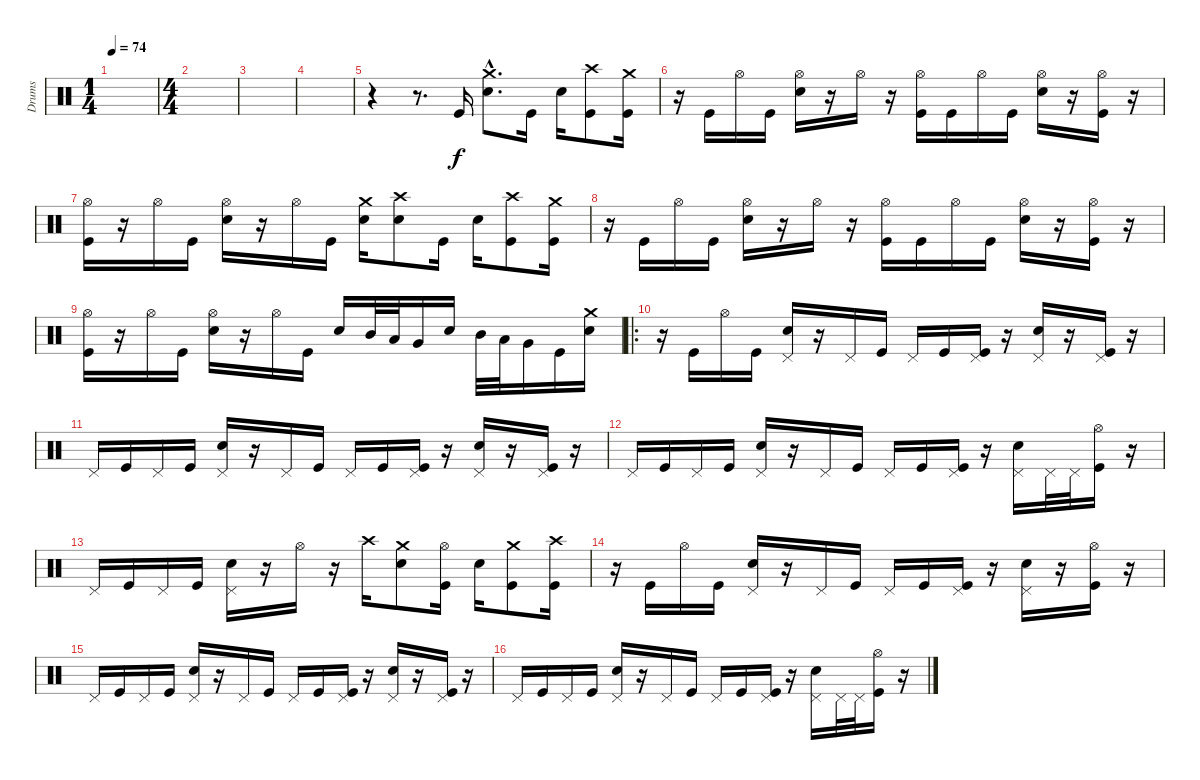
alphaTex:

\track ("Drums" "Drums") {instrument percussion}
\staff {score}
\articulation defaults
\ts (1 4)
\tempo 74
\clef neutral
\ks c
|
\ts (4 4)
|
|
|
r.4 r.8{d} "Kick (hit)".16 ("Crash medium (hit)"{hac} "Electric Snare (hit)"{hac}).8{d} "Kick (hit)".16 "Electric Snare (hit)".16 ("Crash high (hit)" "Kick (hit)").8 ("Crash medium (hit)" "Kick (hit)").16 |
r.16 "Kick (hit)".16 "Hi-Hat (open)".16 "Kick (hit)".16 ("Hi-Hat (open)" "Electric Snare (hit)").16 r.16 "Hi-Hat (open)".16 r.16 ("Hi-Hat (open)" "Kick (hit)").16 "Kick (hit)".16 "Hi-Hat (open)".16 "Kick (hit)".16 ("Hi-Hat (open)" "Electric Snare (hit)").16 r.16 ("Hi-Hat (open)" "Kick (hit)").16 r.16 |
("Hi-Hat (open)" "Kick (hit)").16 r.16 "Hi-Hat (open)".16 "Kick (hit)".16 ("Hi-Hat (open)" "Electric Snare (hit)").16 r.16 "Hi-Hat (open)".16 "Kick (hit)".16 ("Crash medium (hit)" "Electric Snare (hit)").16 ("Crash high (hit)" "Electric Snare (hit)").8 "Kick (hit)".16 "Electric Snare (hit)".16 ("Crash high (hit)" "Kick (hit)").8 ("Crash medium (hit)" "Kick (hit)").16 |
r.16 "Kick (hit)".16 "Hi-Hat (open)".16 "Kick (hit)".16 ("Hi-Hat (open)" "Electric Snare (hit)").16 r.16 "Hi-Hat (open)".16 r.16 ("Hi-Hat (open)" "Kick (hit)").16 "Kick (hit)".16 "Hi-Hat (open)".16 "Kick (hit)".16 ("Hi-Hat (open)" "Electric Snare (hit)").16 r.16 ("Hi-Hat (open)" "Kick (hit)").16 r.16 |
("Hi-Hat (open)" "Kick (hit)").16 r.16 "Hi-Hat (open)".16 "Kick (hit)".16 ("Hi-Hat (open)" "Electric Snare (hit)").16 r.16 "Hi-Hat (open)".16 "Kick (hit)".16 "Electric Snare (hit)".16 "Mid Tom (hit)".32 "Low Tom (hit)".32 "Very Low Tom (hit)".16 "Electric Snare (hit)".16 "Mid Tom (hit)".32 "Low Tom (hit)".32 "Very Low Tom (hit)".16 "Kick (hit)".16 ("Crash medium (hit)" "Electric Snare (hit)").16 |
\ro
r.16 "Kick (hit)".16 "Hi-Hat (open)".16 "Kick (hit)".16 ("Pedal Hi-Hat (hit)" "Electric Snare (hit)").16 r.16 "Pedal Hi-Hat (hit)".16 "Kick (hit)".16 "Pedal Hi-Hat (hit)".16 "Kick (hit)".16 ("Pedal Hi-Hat (hit)" "Kick (hit)").16 r.16 ("Pedal Hi-Hat (hit)" "Electric Snare (hit)").16 r.16 ("Pedal Hi-Hat (hit)" "Kick (hit)").16 r.16 |
"Pedal Hi-Hat (hit)".16 "Kick (hit)".16 "Pedal Hi-Hat (hit)".16 "Kick (hit)".16 ("Pedal Hi-Hat (hit)" "Electric Snare (hit)").16 r.16 "Pedal Hi-Hat (hit)".16 "Kick (hit)".16 "Pedal Hi-Hat (hit)".16 "Kick (hit)".16 ("Pedal Hi-Hat (hit)" "Kick (hit)").16 r.16 ("Pedal Hi-Hat (hit)" "Electric Snare (hit)").16 r.16 ("Pedal Hi-Hat (hit)" "Kick (hit)").16 r.16 |
"Pedal Hi-Hat (hit)".16 "Kick (hit)".16 "Pedal Hi-Hat (hit)".16 "Kick (hit)".16 ("Pedal Hi-Hat (hit)" "Electric Snare (hit)").16 r.16 "Pedal Hi-Hat (hit)".16 "Kick (hit)".16 "Pedal Hi-Hat (hit)".16 "Kick (hit)".16 ("Pedal Hi-Hat (hit)" "Kick (hit)").16 r.16 ("Pedal Hi-Hat (hit)" "Electric Snare (hit)").16 "Pedal Hi-Hat (hit)".32 "Pedal Hi-Hat (hit)".32 ("Hi-Hat (open)" "Kick (hit)").16 r.16 |
"Pedal Hi-Hat (hit)".16 "Kick (hit)".16 "Pedal Hi-Hat (hit)".16 "Kick (hit)".16 ("Pedal Hi-Hat (hit)" "Electric Snare (hit)").16 r.16 "Hi-Hat (open)".16 r.16 "Crash high (hit)".16 ("Crash medium (hit)" "Electric Snare (hit)").8 ("Hi-Hat (open)" "Kick (hit)").16 "Electric Snare (hit)".16 ("Crash medium (hit)" "Kick (hit)").8 ("Crash high (hit)" "Kick (hit)").16 |
r.16 "Kick (hit)".16 "Hi-Hat (open)".16 "Kick (hit)".16 ("Pedal Hi-Hat (hit)" "Electric Snare (hit)").16 r.16 "Pedal Hi-Hat (hit)".16 "Kick (hit)".16 "Pedal Hi-Hat (hit)".16 "Kick (hit)".16 ("Pedal Hi-Hat (hit)" "Kick (hit)").16 r.16 ("Pedal Hi-Hat (hit)" "Electric Snare (hit)").16 r.16 ("Hi-Hat (open)" "Kick (hit)").16 r.16 |
"Pedal Hi-Hat (hit)".16 "Kick (hit)".16 "Pedal Hi-Hat (hit)".16 "Kick (hit)".16 ("Pedal Hi-Hat (hit)" "Electric Snare (hit)").16 r.16 "Pedal Hi-Hat (hit)".16 "Kick (hit)".16 "Pedal Hi-Hat (hit)".16 "Kick (hit)".16 ("Pedal Hi-Hat (hit)" "Kick (hit)").16 r.16 ("Pedal Hi-Hat (hit)" "Electric Snare (hit)").16 r.16 ("Pedal Hi-Hat (hit)" "Kick (hit)").16 r.16 |
"Pedal Hi-Hat (hit)".16 "Kick (hit)".16 "Pedal Hi-Hat (hit)".16 "Kick (hit)".16 ("Pedal Hi-Hat (hit)" "Electric Snare (hit)").16 r.16 "Pedal Hi-Hat (hit)".16 "Kick (hit)".16 "Pedal Hi-Hat (hit)".16 "Kick (hit)".16 ("Pedal Hi-Hat (hit)" "Kick (hit)").16 r.16 ("Pedal Hi-Hat (hit)" "Electric Snare (hit)").16 "Pedal Hi-Hat (hit)".32 "Pedal Hi-Hat (hit)".32 ("Hi-Hat (open)" "Kick (hit)").16 r.16
